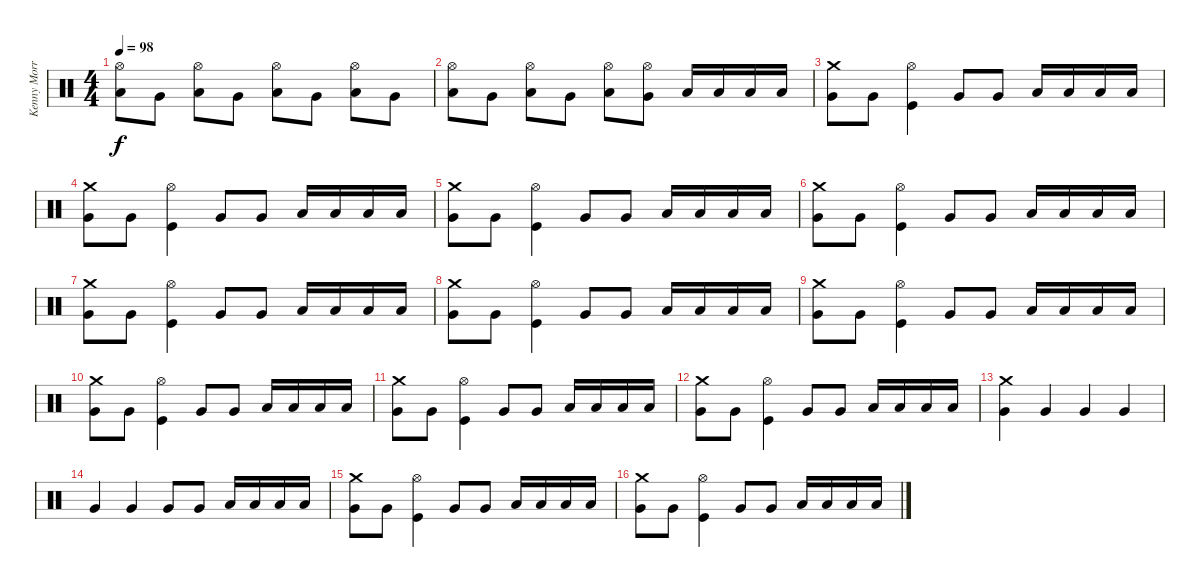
\track ("Kenny Morris" "Kenny Morr") {instrument percussion}
\staff {score}
\articulation defaults
\ts (4 4)
\tempo 98
\clef neutral
\ks c
("Hi-Hat (open)" "Low Tom (hit)").8{dy f} "Very Low Tom (hit)".8 ("Hi-Hat (open)" "Low Tom (hit)").8 "Very Low Tom (hit)".8 ("Hi-Hat (open)" "Low Tom (hit)").8 "Very Low Tom (hit)".8 ("Hi-Hat (open)" "Low Tom (hit)").8 "Very Low Tom (hit)".8 |
("Hi-Hat (open)" "Low Tom (hit)").8 "Very Low Tom (hit)".8 ("Hi-Hat (open)" "Low Tom (hit)").8 "Very Low Tom (hit)".8 ("Hi-Hat (open)" "Low Tom (hit)").8 ("Hi-Hat (open)" "Very Low Tom (hit)").8 "Low Tom (hit)".16 "Low Tom (hit)".16 "Low Tom (hit)".16 "Low Tom (hit)".16 |
("Crash medium (hit)" "Very Low Tom (hit)").8 "Very Low Tom (hit)".8 ("Hi-Hat (open)" "Kick (hit)").4 "Very Low Tom (hit)".8 "Very Low Tom (hit)".8 "Low Tom (hit)".16 "Low Tom (hit)".16 "Low Tom (hit)".16 "Low Tom (hit)".16 |
("Crash medium (hit)" "Very Low Tom (hit)").8 "Very Low Tom (hit)".8 ("Hi-Hat (open)" "Kick (hit)").4 "Very Low Tom (hit)".8 "Very Low Tom (hit)".8 "Low Tom (hit)".16 "Low Tom (hit)".16 "Low Tom (hit)".16 "Low Tom (hit)".16 |
("Crash medium (hit)" "Very Low Tom (hit)").8 "Very Low Tom (hit)".8 ("Hi-Hat (open)" "Kick (hit)").4 "Very Low Tom (hit)".8 "Very Low Tom (hit)".8 "Low Tom (hit)".16 "Low Tom (hit)".16 "Low Tom (hit)".16 "Low Tom (hit)".16 |
("Crash medium (hit)" "Very Low Tom (hit)").8 "Very Low Tom (hit)".8 ("Hi-Hat (open)" "Kick (hit)").4 "Very Low Tom (hit)".8 "Very Low Tom (hit)".8 "Low Tom (hit)".16 "Low Tom (hit)".16 "Low Tom (hit)".16 "Low Tom (hit)".16 |
("Crash medium (hit)" "Very Low Tom (hit)").8 "Very Low Tom (hit)".8 ("Hi-Hat (open)" "Kick (hit)").4 "Very Low Tom (hit)".8 "Very Low Tom (hit)".8 "Low Tom (hit)".16 "Low Tom (hit)".16 "Low Tom (hit)".16 "Low Tom (hit)".16 |
("Crash medium (hit)" "Very Low Tom (hit)").8 "Very Low Tom (hit)".8 ("Hi-Hat (open)" "Kick (hit)").4 "Very Low Tom (hit)".8 "Very Low Tom (hit)".8 "Low Tom (hit)".16 "Low Tom (hit)".16 "Low Tom (hit)".16 "Low Tom (hit)".16 |
("Crash medium (hit)" "Very Low Tom (hit)").8 "Very Low Tom (hit)".8 ("Hi-Hat (open)" "Kick (hit)").4 "Very Low Tom (hit)".8 "Very Low Tom (hit)".8 "Low Tom (hit)".16 "Low Tom (hit)".16 "Low Tom (hit)".16 "Low Tom (hit)".16 |
("Crash medium (hit)" "Very Low Tom (hit)").8 "Very Low Tom (hit)".8 ("Hi-Hat (open)" "Kick (hit)").4 "Very Low Tom (hit)".8 "Very Low Tom (hit)".8 "Low Tom (hit)".16 "Low Tom (hit)".16 "Low Tom (hit)".16 "Low Tom (hit)".16 |
("Crash medium (hit)" "Very Low Tom (hit)").8 "Very Low Tom (hit)".8 ("Hi-Hat (open)" "Kick (hit)").4 "Very Low Tom (hit)".8 "Very Low Tom (hit)".8 "Low Tom (hit)".16 "Low Tom (hit)".16 "Low Tom (hit)".16 "Low Tom (hit)".16 |
("Crash medium (hit)" "Very Low Tom (hit)").8 "Very Low Tom (hit)".8 ("Hi-Hat (open)" "Kick (hit)").4 "Very Low Tom (hit)".8 "Very Low Tom (hit)".8 "Low Tom (hit)".16 "Low Tom (hit)".16 "Low Tom (hit)".16 "Low Tom (hit)".16 |
("Crash medium (hit)" "Very Low Tom (hit)").4 "Very Low Tom (hit)".4 "Very Low Tom (hit)".4 "Very Low Tom (hit)".4 |
"Very Low Tom (hit)".4 "Very Low Tom (hit)".4 "Very Low Tom (hit)".8 "Very Low Tom (hit)".8 "Low Tom (hit)".16 "Low Tom (hit)".16 "Low Tom (hit)".16 "Low Tom (hit)".16 |
("Crash medium (hit)" "Very Low Tom (hit)").8 "Very Low Tom (hit)".8 ("Hi-Hat (open)" "Kick (hit)").4 "Very Low Tom (hit)".8 "Very Low Tom (hit)".8 "Low Tom (hit)".16 "Low Tom (hit)".16 "Low Tom (hit)".16 "Low Tom (hit)".16 |
("Crash medium (hit)" "Very Low Tom (hit)").8 "Very Low Tom (hit)".8 ("Hi-Hat (open)" "Kick (hit)").4 "Very Low Tom (hit)".8 "Very Low Tom (hit)".8 "Low Tom (hit)".16 "Low Tom (hit)".16 "Low Tom (hit)".16 "Low Tom (hit)".16
